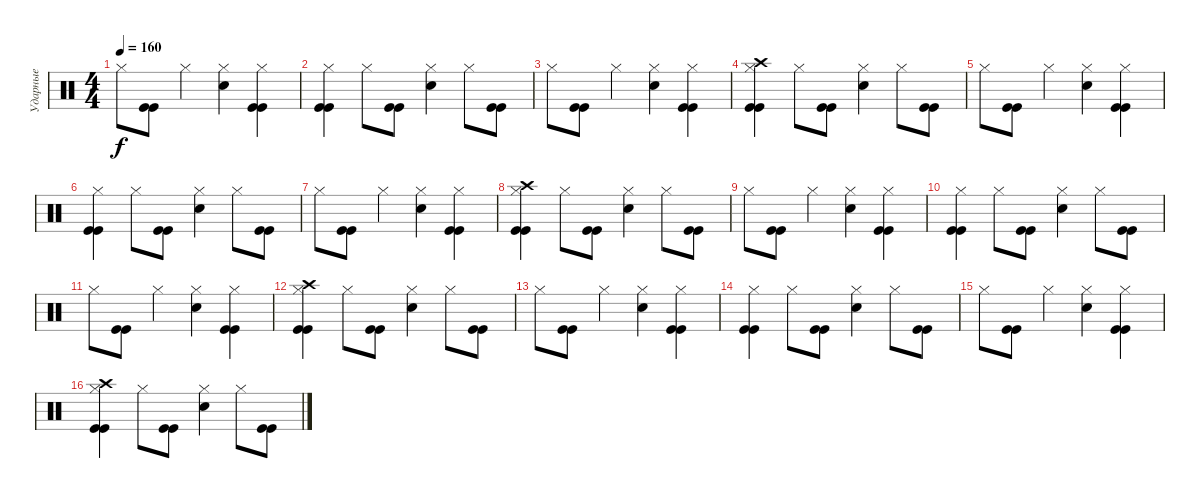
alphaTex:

\track ("Ударные" "Ударные") {instrument percussion}
\staff {score}
\articulation defaults
\ts (4 4)
\tempo 160
\clef neutral
\ks c "Hi-Hat (closed)".8{dy f}
("Kick (hit)" "Kick (hit)").8 "Hi-Hat (closed)".4 ("Hi-Hat (closed)" "Snare (hit) 2").4 ("Hi-Hat (closed)" "Kick (hit)" "Kick (hit)").4 |
("Hi-Hat (closed)" "Kick (hit)" "Kick (hit)").4 "Hi-Hat (closed)".8 ("Kick (hit)" "Kick (hit)").8 ("Hi-Hat (closed)" "Snare (hit) 2").4 "Hi-Hat (closed)".8 ("Kick (hit)" "Kick (hit)").8 |
"Hi-Hat (closed)".8 ("Kick (hit)" "Kick (hit)").8 "Hi-Hat (closed)".4 ("Hi-Hat (closed)" "Snare (hit) 2").4 ("Hi-Hat (closed)" "Kick (hit)" "Kick (hit)").4 |
("Crash high (hit)" "Hi-Hat (closed)" "Kick (hit)" "Kick (hit)").4 "Hi-Hat (closed)".8 ("Kick (hit)" "Kick (hit)").8 ("Hi-Hat (closed)" "Snare (hit) 2").4 "Hi-Hat (closed)".8 ("Kick (hit)" "Kick (hit)").8 |
"Hi-Hat (closed)".8 ("Kick (hit)" "Kick (hit)").8 "Hi-Hat (closed)".4 ("Hi-Hat (closed)" "Snare (hit) 2").4 ("Hi-Hat (closed)" "Kick (hit)" "Kick (hit)").4 |
("Hi-Hat (closed)" "Kick (hit)" "Kick (hit)").4 "Hi-Hat (closed)".8 ("Kick (hit)" "Kick (hit)").8 ("Hi-Hat (closed)" "Snare (hit) 2").4 "Hi-Hat (closed)".8 ("Kick (hit)" "Kick (hit)").8 |
"Hi-Hat (closed)".8 ("Kick (hit)" "Kick (hit)").8 "Hi-Hat (closed)".4 ("Hi-Hat (closed)" "Snare (hit) 2").4 ("Hi-Hat (closed)" "Kick (hit)" "Kick (hit)").4 |
("Crash high (hit)" "Hi-Hat (closed)" "Kick (hit)" "Kick (hit)").4 "Hi-Hat (closed)".8 ("Kick (hit)" "Kick (hit)").8 ("Hi-Hat (closed)" "Snare (hit) 2").4 "Hi-Hat (closed)".8 ("Kick (hit)" "Kick (hit)").8 |
"Hi-Hat (closed)".8 ("Kick (hit)" "Kick (hit)").8 "Hi-Hat (closed)".4 ("Hi-Hat (closed)" "Snare (hit) 2").4 ("Hi-Hat (closed)" "Kick (hit)" "Kick (hit)").4 |
("Hi-Hat (closed)" "Kick (hit)" "Kick (hit)").4 "Hi-Hat (closed)".8 ("Kick (hit)" "Kick (hit)").8 ("Hi-Hat (closed)" "Snare (hit) 2").4 "Hi-Hat (closed)".8 ("Kick (hit)" "Kick (hit)").8 |
"Hi-Hat (closed)".8 ("Kick (hit)" "Kick (hit)").8 "Hi-Hat (closed)".4 ("Hi-Hat (closed)" "Snare (hit) 2").4 ("Hi-Hat (closed)" "Kick (hit)" "Kick (hit)").4 |
("Crash high (hit)" "Hi-Hat (closed)" "Kick (hit)" "Kick (hit)").4 "Hi-Hat (closed)".8 ("Kick (hit)" "Kick (hit)").8 ("Hi-Hat (closed)" "Snare (hit) 2").4 "Hi-Hat (closed)".8 ("Kick (hit)" "Kick (hit)").8 |
"Hi-Hat (closed)".8 ("Kick (hit)" "Kick (hit)").8 "Hi-Hat (closed)".4 ("Hi-Hat (closed)" "Snare (hit) 2").4 ("Hi-Hat (closed)" "Kick (hit)" "Kick (hit)").4 |
("Hi-Hat (closed)" "Kick (hit)" "Kick (hit)").4 "Hi-Hat (closed)".8 ("Kick (hit)" "Kick (hit)").8 ("Hi-Hat (closed)" "Snare (hit) 2").4 "Hi-Hat (closed)".8 ("Kick (hit)" "Kick (hit)").8 |
"Hi-Hat (closed)".8 ("Kick (hit)" "Kick (hit)").8 "Hi-Hat (closed)".4 ("Hi-Hat (closed)" "Snare (hit) 2").4 ("Hi-Hat (closed)" "Kick (hit)" "Kick (hit)").4 |
("Crash high (hit)" "Hi-Hat (closed)" "Kick (hit)" "Kick (hit)").4 "Hi-Hat (closed)".8 ("Kick (hit)" "Kick (hit)").8 ("Hi-Hat (closed)" "Snare (hit) 2").4 "Hi-Hat (closed)".8 ("Kick (hit)" "Kick (hit)").8
